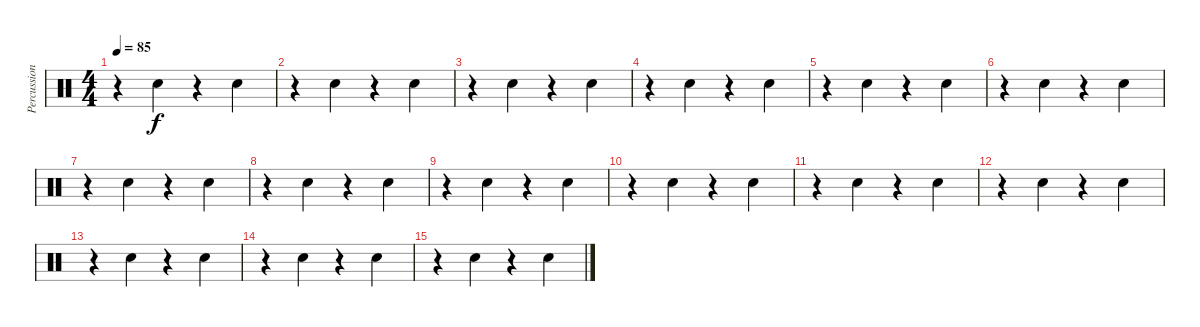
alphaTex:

\track ("Percussions" "Percussion") {instrument percussion}
\staff {score}
\articulation defaults
\ts (4 4)
\tempo 85
\clef neutral
\ks c
r.4{dy f} "Hand Clap (hit)".4 r.4 "Hand Clap (hit)".4 |
r.4 "Hand Clap (hit)".4 r.4 "Hand Clap (hit)".4 |
r.4 "Hand Clap (hit)".4 r.4 "Hand Clap (hit)".4 |
r.4 "Hand Clap (hit)".4 r.4 "Hand Clap (hit)".4 |
r.4 "Hand Clap (hit)".4 r.4 "Hand Clap (hit)".4 |
r.4 "Hand Clap (hit)".4 r.4 "Hand Clap (hit)".4 |
r.4 "Hand Clap (hit)".4 r.4 "Hand Clap (hit)".4 |
r.4 "Hand Clap (hit)".4 r.4 "Hand Clap (hit)".4 |
r.4 "Hand Clap (hit)".4 r.4 "Hand Clap (hit)".4 |
r.4 "Hand Clap (hit)".4 r.4 "Hand Clap (hit)".4 |
r.4 "Hand Clap (hit)".4 r.4 "Hand Clap (hit)".4 |
r.4 "Hand Clap (hit)".4 r.4 "Hand Clap (hit)".4 |
r.4 "Hand Clap (hit)".4 r.4 "Hand Clap (hit)".4 |
r.4 "Hand Clap (hit)".4 r.4 "Hand Clap (hit)".4 |
r.4 "Hand Clap (hit)".4 r.4 "Hand Clap (hit)".4
